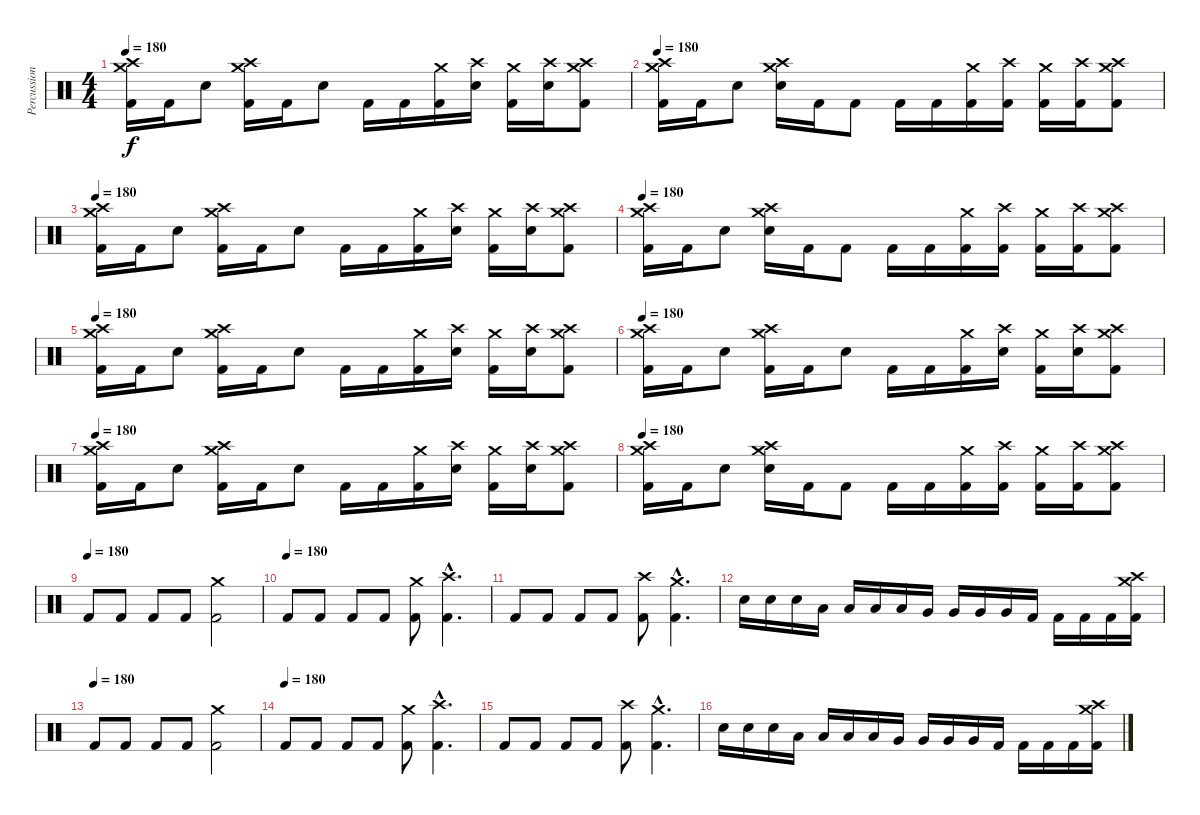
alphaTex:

\track ("Percussion" "Percussion") {instrument percussion}
\staff {score}
\articulation defaults
\ts (4 4)
\tempo 180
\clef neutral
\ks c
("Crash high (hit)" "Crash medium (hit)" "Kick (hit) 2").16{dy f} "Kick (hit) 2".16 "Snare (hit) 2".8 ("Crash high (hit)" "Crash medium (hit)" "Kick (hit) 2").16 "Kick (hit) 2".16 "Snare (hit) 2".8 "Kick (hit) 2".16 "Kick (hit) 2".16 ("Crash medium (hit)" "Kick (hit) 2").16 ("Crash high (hit)" "Snare (hit) 2").16 ("Crash medium (hit)" "Kick (hit) 2").16 ("Crash high (hit)" "Snare (hit) 2").16 ("Crash medium (hit)" "Crash high (hit)" "Kick (hit) 2").8 |
\tempo 180
("Crash high (hit)" "Crash medium (hit)" "Kick (hit) 2").16 "Kick (hit) 2".16 "Snare (hit) 2".8 ("Crash high (hit)" "Crash medium (hit)" "Snare (hit) 2").16 "Kick (hit) 2".16 "Kick (hit) 2".8 "Kick (hit) 2".16 "Kick (hit) 2".16 ("Crash medium (hit)" "Kick (hit) 2").16 ("Crash high (hit)" "Kick (hit) 2").16 ("Crash medium (hit)" "Kick (hit) 2").16 ("Crash high (hit)" "Kick (hit) 2").16 ("Crash medium (hit)" "Crash high (hit)" "Kick (hit) 2").8 |
\tempo 180
("Crash high (hit)" "Crash medium (hit)" "Kick (hit) 2").16 "Kick (hit) 2".16 "Snare (hit) 2".8 ("Crash high (hit)" "Crash medium (hit)" "Kick (hit) 2").16 "Kick (hit) 2".16 "Snare (hit) 2".8 "Kick (hit) 2".16 "Kick (hit) 2".16 ("Crash medium (hit)" "Kick (hit) 2").16 ("Crash high (hit)" "Snare (hit) 2").16 ("Crash medium (hit)" "Kick (hit) 2").16 ("Crash high (hit)" "Snare (hit) 2").16 ("Crash medium (hit)" "Crash high (hit)" "Kick (hit) 2").8 |
\tempo 180
("Crash high (hit)" "Crash medium (hit)" "Kick (hit) 2").16 "Kick (hit) 2".16 "Snare (hit) 2".8 ("Crash high (hit)" "Crash medium (hit)" "Snare (hit) 2").16 "Kick (hit) 2".16 "Kick (hit) 2".8 "Kick (hit) 2".16 "Kick (hit) 2".16 ("Crash medium (hit)" "Kick (hit) 2").16 ("Crash high (hit)" "Kick (hit) 2").16 ("Crash medium (hit)" "Kick (hit) 2").16 ("Crash high (hit)" "Kick (hit) 2").16 ("Crash medium (hit)" "Crash high (hit)" "Kick (hit) 2").8 |
\tempo 180
("Crash high (hit)" "Crash medium (hit)" "Kick (hit) 2").16 "Kick (hit) 2".16 "Snare (hit) 2".8 ("Crash high (hit)" "Crash medium (hit)" "Kick (hit) 2").16 "Kick (hit) 2".16 "Snare (hit) 2".8 "Kick (hit) 2".16 "Kick (hit) 2".16 ("Crash medium (hit)" "Kick (hit) 2").16 ("Crash high (hit)" "Snare (hit) 2").16 ("Crash medium (hit)" "Kick (hit) 2").16 ("Crash high (hit)" "Snare (hit) 2").16 ("Crash medium (hit)" "Crash high (hit)" "Kick (hit) 2").8 |
\tempo 180
("Crash high (hit)" "Crash medium (hit)" "Kick (hit) 2").16 "Kick (hit) 2".16 "Snare (hit) 2".8 ("Crash high (hit)" "Crash medium (hit)" "Kick (hit) 2").16 "Kick (hit) 2".16 "Snare (hit) 2".8 "Kick (hit) 2".16 "Kick (hit) 2".16 ("Crash medium (hit)" "Kick (hit) 2").16 ("Crash high (hit)" "Snare (hit) 2").16 ("Crash medium (hit)" "Kick (hit) 2").16 ("Crash high (hit)" "Snare (hit) 2").16 ("Crash medium (hit)" "Crash high (hit)" "Kick (hit) 2").8 |
\tempo 180
("Crash high (hit)" "Crash medium (hit)" "Kick (hit) 2").16 "Kick (hit) 2".16 "Snare (hit) 2".8 ("Crash high (hit)" "Crash medium (hit)" "Kick (hit) 2").16 "Kick (hit) 2".16 "Snare (hit) 2".8 "Kick (hit) 2".16 "Kick (hit) 2".16 ("Crash medium (hit)" "Kick (hit) 2").16 ("Crash high (hit)" "Snare (hit) 2").16 ("Crash medium (hit)" "Kick (hit) 2").16 ("Crash high (hit)" "Snare (hit) 2").16 ("Crash medium (hit)" "Crash high (hit)" "Kick (hit) 2").8 |
\tempo 180
("Crash high (hit)" "Crash medium (hit)" "Kick (hit) 2").16 "Kick (hit) 2".16 "Snare (hit) 2".8 ("Crash high (hit)" "Crash medium (hit)" "Snare (hit) 2").16 "Kick (hit) 2".16 "Kick (hit) 2".8 "Kick (hit) 2".16 "Kick (hit) 2".16 ("Crash medium (hit)" "Kick (hit) 2").16 ("Crash high (hit)" "Kick (hit) 2").16 ("Crash medium (hit)" "Kick (hit) 2").16 ("Crash high (hit)" "Kick (hit) 2").16 ("Crash medium (hit)" "Crash high (hit)" "Kick (hit) 2").8 |
\tempo (180)
"Kick (hit) 2".8 "Kick (hit) 2".8 "Kick (hit) 2".8 "Kick (hit) 2".8 ("Crash medium (hit)" "Kick (hit) 2").2 |
\tempo (180)
"Kick (hit) 2".8 "Kick (hit) 2".8 "Kick (hit) 2".8 "Kick (hit) 2".8 ("Crash medium (hit)" "Kick (hit) 2").8 ("Crash high (hit)"{hac} "Kick (hit) 2"{hac}).4{d} |
"Kick (hit) 2".8 "Kick (hit) 2".8 "Kick (hit) 2".8 "Kick (hit) 2".8 ("Crash high (hit)" "Kick (hit) 2").8 ("Crash medium (hit)"{hac} "Kick (hit) 2"{hac}).4{d} |
"Snare (hit) 2".16 "Snare (hit) 2".16 "Snare (hit) 2".16 "Low Floor Tom (hit)".16 "Low Floor Tom (hit)".16 "Low Floor Tom (hit)".16 "Low Floor Tom (hit)".16 "Very Low Tom (hit)".16 "Very Low Tom (hit)".16 "Very Low Tom (hit)".16 "Very Low Tom (hit)".16 "Kick (hit) 2".16 "Kick (hit) 2".16 "Kick (hit) 2".16 "Kick (hit) 2".16 ("Crash high (hit)" "Crash medium (hit)" "Kick (hit) 2").16 |
\tempo (180)
"Kick (hit) 2".8 "Kick (hit) 2".8 "Kick (hit) 2".8 "Kick (hit) 2".8 ("Crash medium (hit)" "Kick (hit) 2").2 |
\tempo (180)
"Kick (hit) 2".8 "Kick (hit) 2".8 "Kick (hit) 2".8 "Kick (hit) 2".8 ("Crash medium (hit)" "Kick (hit) 2").8 ("Crash high (hit)"{hac} "Kick (hit) 2"{hac}).4{d} |
"Kick (hit) 2".8 "Kick (hit) 2".8 "Kick (hit) 2".8 "Kick (hit) 2".8 ("Crash high (hit)" "Kick (hit) 2").8 ("Crash medium (hit)"{hac} "Kick (hit) 2"{hac}).4{d} |
"Snare (hit) 2".16 "Snare (hit) 2".16 "Snare (hit) 2".16 "Low Floor Tom (hit)".16 "Low Floor Tom (hit)".16 "Low Floor Tom (hit)".16 "Low Floor Tom (hit)".16 "Very Low Tom (hit)".16 "Very Low Tom (hit)".16 "Very Low Tom (hit)".16 "Very Low Tom (hit)".16 "Kick (hit) 2".16 "Kick (hit) 2".16 "Kick (hit) 2".16 "Kick (hit) 2".16 ("Crash high (hit)" "Crash medium (hit)" "Kick (hit) 2").16
